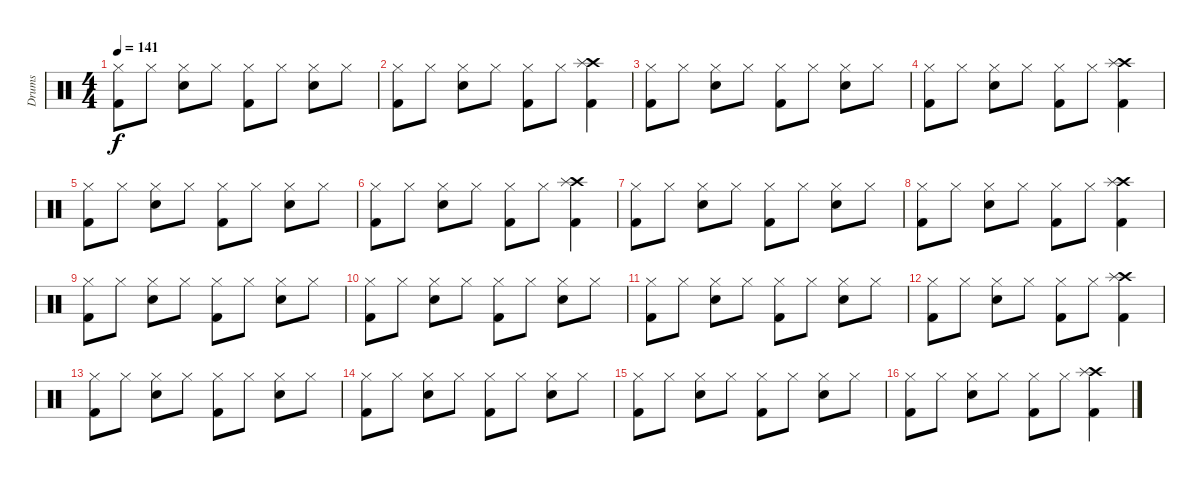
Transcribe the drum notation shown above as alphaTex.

\track ("Drums" "Drums") {instrument percussion}
\staff {score}
\articulation defaults
\ts (4 4)
\tempo 141
\clef neutral
\ks c
("Hi-Hat (closed)" "Kick (hit) 2").8{dy f} "Hi-Hat (closed)".8 ("Hi-Hat (closed)" "Snare (hit) 2").8 "Hi-Hat (closed)".8 ("Hi-Hat (closed)" "Kick (hit) 2").8 "Hi-Hat (closed)".8 ("Hi-Hat (closed)" "Snare (hit) 2").8 "Hi-Hat (closed)".8 |
("Hi-Hat (closed)" "Kick (hit) 2").8 "Hi-Hat (closed)".8 ("Hi-Hat (closed)" "Snare (hit) 2").8 "Hi-Hat (closed)".8 ("Hi-Hat (closed)" "Kick (hit) 2").8 "Hi-Hat (closed)".8 ("Crash high (hit)" "Splash (hit)" "Kick (hit) 2").4 |
("Hi-Hat (closed)" "Kick (hit) 2").8 "Hi-Hat (closed)".8 ("Hi-Hat (closed)" "Snare (hit) 2").8 "Hi-Hat (closed)".8 ("Hi-Hat (closed)" "Kick (hit) 2").8 "Hi-Hat (closed)".8 ("Hi-Hat (closed)" "Snare (hit) 2").8 "Hi-Hat (closed)".8 |
("Hi-Hat (closed)" "Kick (hit) 2").8 "Hi-Hat (closed)".8 ("Hi-Hat (closed)" "Snare (hit) 2").8 "Hi-Hat (closed)".8 ("Hi-Hat (closed)" "Kick (hit) 2").8 "Hi-Hat (closed)".8 ("Crash high (hit)" "Splash (hit)" "Kick (hit) 2").4 |
("Hi-Hat (closed)" "Kick (hit) 2").8 "Hi-Hat (closed)".8 ("Hi-Hat (closed)" "Snare (hit) 2").8 "Hi-Hat (closed)".8 ("Hi-Hat (closed)" "Kick (hit) 2").8 "Hi-Hat (closed)".8 ("Hi-Hat (closed)" "Snare (hit) 2").8 "Hi-Hat (closed)".8 |
("Hi-Hat (closed)" "Kick (hit) 2").8 "Hi-Hat (closed)".8 ("Hi-Hat (closed)" "Snare (hit) 2").8 "Hi-Hat (closed)".8 ("Hi-Hat (closed)" "Kick (hit) 2").8 "Hi-Hat (closed)".8 ("Crash high (hit)" "Splash (hit)" "Kick (hit) 2").4 |
("Hi-Hat (closed)" "Kick (hit) 2").8 "Hi-Hat (closed)".8 ("Hi-Hat (closed)" "Snare (hit) 2").8 "Hi-Hat (closed)".8 ("Hi-Hat (closed)" "Kick (hit) 2").8 "Hi-Hat (closed)".8 ("Hi-Hat (closed)" "Snare (hit) 2").8 "Hi-Hat (closed)".8 |
("Hi-Hat (closed)" "Kick (hit) 2").8 "Hi-Hat (closed)".8 ("Hi-Hat (closed)" "Snare (hit) 2").8 "Hi-Hat (closed)".8 ("Hi-Hat (closed)" "Kick (hit) 2").8 "Hi-Hat (closed)".8 ("Crash high (hit)" "Splash (hit)" "Kick (hit) 2").4 |
("Hi-Hat (closed)" "Kick (hit) 2").8 "Hi-Hat (closed)".8 ("Hi-Hat (closed)" "Snare (hit) 2").8 "Hi-Hat (closed)".8 ("Hi-Hat (closed)" "Kick (hit) 2").8 "Hi-Hat (closed)".8 ("Hi-Hat (closed)" "Snare (hit) 2").8 "Hi-Hat (closed)".8 |
("Hi-Hat (closed)" "Kick (hit) 2").8 "Hi-Hat (closed)".8 ("Hi-Hat (closed)" "Snare (hit) 2").8 "Hi-Hat (closed)".8 ("Hi-Hat (closed)" "Kick (hit) 2").8 "Hi-Hat (closed)".8 ("Hi-Hat (closed)" "Snare (hit) 2").8 "Hi-Hat (closed)".8 |
("Hi-Hat (closed)" "Kick (hit) 2").8 "Hi-Hat (closed)".8 ("Hi-Hat (closed)" "Snare (hit) 2").8 "Hi-Hat (closed)".8 ("Hi-Hat (closed)" "Kick (hit) 2").8 "Hi-Hat (closed)".8 ("Hi-Hat (closed)" "Snare (hit) 2").8 "Hi-Hat (closed)".8 |
("Hi-Hat (closed)" "Kick (hit) 2").8 "Hi-Hat (closed)".8 ("Hi-Hat (closed)" "Snare (hit) 2").8 "Hi-Hat (closed)".8 ("Hi-Hat (closed)" "Kick (hit) 2").8 "Hi-Hat (closed)".8 ("Crash high (hit)" "Splash (hit)" "Kick (hit) 2").4 |
("Hi-Hat (closed)" "Kick (hit) 2").8 "Hi-Hat (closed)".8 ("Hi-Hat (closed)" "Snare (hit) 2").8 "Hi-Hat (closed)".8 ("Hi-Hat (closed)" "Kick (hit) 2").8 "Hi-Hat (closed)".8 ("Hi-Hat (closed)" "Snare (hit) 2").8 "Hi-Hat (closed)".8 |
("Hi-Hat (closed)" "Kick (hit) 2").8 "Hi-Hat (closed)".8 ("Hi-Hat (closed)" "Snare (hit) 2").8 "Hi-Hat (closed)".8 ("Hi-Hat (closed)" "Kick (hit) 2").8 "Hi-Hat (closed)".8 ("Hi-Hat (closed)" "Snare (hit) 2").8 "Hi-Hat (closed)".8 |
("Hi-Hat (closed)" "Kick (hit) 2").8 "Hi-Hat (closed)".8 ("Hi-Hat (closed)" "Snare (hit) 2").8 "Hi-Hat (closed)".8 ("Hi-Hat (closed)" "Kick (hit) 2").8 "Hi-Hat (closed)".8 ("Hi-Hat (closed)" "Snare (hit) 2").8 "Hi-Hat (closed)".8 |
("Hi-Hat (closed)" "Kick (hit) 2").8 "Hi-Hat (closed)".8 ("Hi-Hat (closed)" "Snare (hit) 2").8 "Hi-Hat (closed)".8 ("Hi-Hat (closed)" "Kick (hit) 2").8 "Hi-Hat (closed)".8 ("Crash high (hit)" "Splash (hit)" "Kick (hit) 2").4
